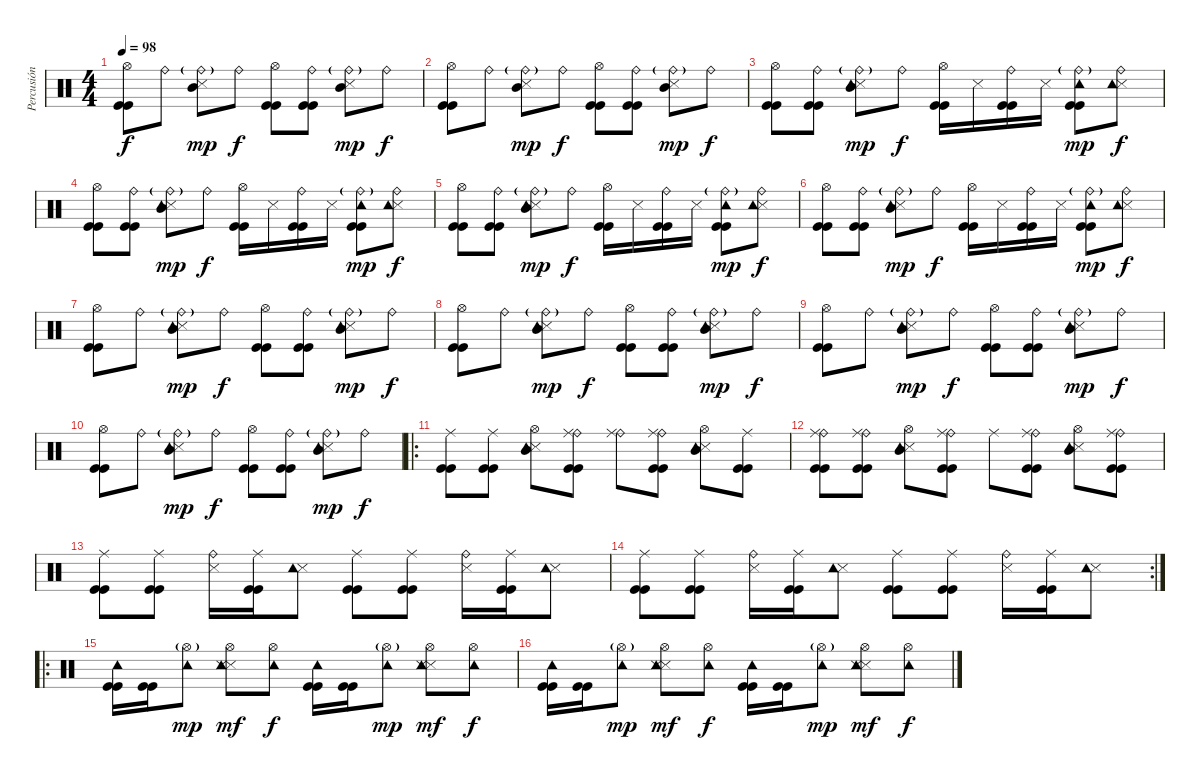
\track ("Percusión" "Percusión") {instrument percussion}
\staff {score}
\articulation defaults
\ts (4 4)
\tempo 98
\clef neutral
\ks c
("Kick (hit)" "Kick (hit)" "Hi-Hat (open)").8{dy f} "Ride (bell)".8 ("Snare (side stick) 3" "Mid Tom (hit)" "Ride (bell)"{g}).8{dy mp} "Ride (bell)".8{dy f} ("Kick (hit)" "Kick (hit)" "Hi-Hat (open)").8 ("Kick (hit)" "Kick (hit)" "Ride (bell)").8 ("Snare (side stick) 3" "Mid Tom (hit)" "Ride (bell)"{g}).8{dy mp} "Ride (bell)".8{dy f} |
("Kick (hit)" "Kick (hit)" "Hi-Hat (open)").8 "Ride (bell)".8 ("Snare (side stick) 3" "Mid Tom (hit)" "Ride (bell)"{g}).8{dy mp} "Ride (bell)".8{dy f} ("Kick (hit)" "Kick (hit)" "Hi-Hat (open)").8 ("Kick (hit)" "Kick (hit)" "Ride (bell)").8 ("Snare (side stick) 3" "Mid Tom (hit)" "Ride (bell)"{g}).8{dy mp} "Ride (bell)".8{dy f} |
("Kick (hit)" "Kick (hit)" "Hi-Hat (open)").8 ("Kick (hit)" "Kick (hit)" "Ride (bell)").8 ("Snare (side stick) 3" "Mid Tom (hit)" "Ride (bell)"{g} "Tambourine (hit)").8{dy mp} "Ride (bell)".8{dy f} ("Kick (hit)" "Kick (hit)" "Hi-Hat (open)").16 "Snare (side stick) 3".16 ("Kick (hit)" "Kick (hit)" "Ride (bell)").16 "Snare (side stick) 3".16 ("Kick (hit)" "Kick (hit)" "Ride (bell)"{g} "Tambourine (hit)").8{dy mp} ("Snare (side stick) 3" "Ride (bell)" "Tambourine (hit)").8{dy f} |
("Kick (hit)" "Kick (hit)" "Hi-Hat (open)").8 ("Kick (hit)" "Kick (hit)" "Ride (bell)").8 ("Snare (side stick) 3" "Mid Tom (hit)" "Ride (bell)"{g} "Tambourine (hit)").8{dy mp} "Ride (bell)".8{dy f} ("Kick (hit)" "Kick (hit)" "Hi-Hat (open)").16 "Snare (side stick) 3".16 ("Kick (hit)" "Kick (hit)" "Ride (bell)").16 "Snare (side stick) 3".16 ("Kick (hit)" "Kick (hit)" "Ride (bell)"{g} "Tambourine (hit)").8{dy mp} ("Snare (side stick) 3" "Ride (bell)" "Tambourine (hit)").8{dy f} |
("Kick (hit)" "Kick (hit)" "Hi-Hat (open)").8 ("Kick (hit)" "Kick (hit)" "Ride (bell)").8 ("Snare (side stick) 3" "Mid Tom (hit)" "Ride (bell)"{g} "Tambourine (hit)").8{dy mp} "Ride (bell)".8{dy f} ("Kick (hit)" "Kick (hit)" "Hi-Hat (open)").16 "Snare (side stick) 3".16 ("Kick (hit)" "Kick (hit)" "Ride (bell)").16 "Snare (side stick) 3".16 ("Kick (hit)" "Kick (hit)" "Ride (bell)"{g} "Tambourine (hit)").8{dy mp} ("Snare (side stick) 3" "Ride (bell)" "Tambourine (hit)").8{dy f} |
("Kick (hit)" "Kick (hit)" "Hi-Hat (open)").8 ("Kick (hit)" "Kick (hit)" "Ride (bell)").8 ("Snare (side stick) 3" "Mid Tom (hit)" "Ride (bell)"{g} "Tambourine (hit)").8{dy mp} "Ride (bell)".8{dy f} ("Kick (hit)" "Kick (hit)" "Hi-Hat (open)").16 "Snare (side stick) 3".16 ("Kick (hit)" "Kick (hit)" "Ride (bell)").16 "Snare (side stick) 3".16 ("Kick (hit)" "Kick (hit)" "Ride (bell)"{g} "Tambourine (hit)").8{dy mp} ("Snare (side stick) 3" "Ride (bell)" "Tambourine (hit)").8{dy f} |
("Kick (hit)" "Kick (hit)" "Hi-Hat (open)").8 "Ride (bell)".8 ("Snare (side stick) 3" "Mid Tom (hit)" "Ride (bell)"{g} "Tambourine (hit)").8{dy mp} "Ride (bell)".8{dy f} ("Kick (hit)" "Kick (hit)" "Hi-Hat (open)").8 ("Kick (hit)" "Kick (hit)" "Ride (bell)").8 ("Snare (side stick) 3" "Mid Tom (hit)" "Ride (bell)"{g} "Tambourine (hit)").8{dy mp} "Ride (bell)".8{dy f} |
("Kick (hit)" "Kick (hit)" "Hi-Hat (open)").8 "Ride (bell)".8 ("Snare (side stick) 3" "Mid Tom (hit)" "Ride (bell)"{g} "Tambourine (hit)").8{dy mp} "Ride (bell)".8{dy f} ("Kick (hit)" "Kick (hit)" "Hi-Hat (open)").8 ("Kick (hit)" "Kick (hit)" "Ride (bell)").8 ("Snare (side stick) 3" "Mid Tom (hit)" "Ride (bell)"{g} "Tambourine (hit)").8{dy mp} "Ride (bell)".8{dy f} |
("Kick (hit)" "Kick (hit)" "Hi-Hat (open)").8 "Ride (bell)".8 ("Snare (side stick) 3" "Mid Tom (hit)" "Ride (bell)"{g} "Tambourine (hit)").8{dy mp} "Ride (bell)".8{dy f} ("Kick (hit)" "Kick (hit)" "Hi-Hat (open)").8 ("Kick (hit)" "Kick (hit)" "Ride (bell)").8 ("Snare (side stick) 3" "Mid Tom (hit)" "Ride (bell)"{g} "Tambourine (hit)").8{dy mp} "Ride (bell)".8{dy f} |
("Kick (hit)" "Kick (hit)" "Hi-Hat (open)").8 "Ride (bell)".8 ("Snare (side stick) 3" "Mid Tom (hit)" "Ride (bell)"{g} "Tambourine (hit)").8{dy mp} "Ride (bell)".8{dy f} ("Kick (hit)" "Kick (hit)" "Hi-Hat (open)").8 ("Kick (hit)" "Kick (hit)" "Ride (bell)").8 ("Snare (side stick) 3" "Mid Tom (hit)" "Ride (bell)"{g} "Tambourine (hit)").8{dy mp} "Ride (bell)".8{dy f} |
\ro
("Kick (hit)" "Kick (hit)" "Ride (middle)").8 ("Kick (hit)" "Kick (hit)" "Ride (middle)").8 ("Snare (side stick) 3" "Mid Tom (hit)" "Hi-Hat (open)" "Tambourine (hit)").8 ("Kick (hit)" "Kick (hit)" "Ride (bell)" "Ride (middle)").8 ("Ride (bell)" "Ride (middle)").8 ("Kick (hit)" "Kick (hit)" "Ride (bell)" "Ride (middle)").8 ("Snare (side stick) 3" "Mid Tom (hit)" "Hi-Hat (open)" "Tambourine (hit)").8 ("Kick (hit)" "Kick (hit)" "Ride (middle)").8 |
("Kick (hit)" "Kick (hit)" "Ride (bell)" "Ride (middle)").8 ("Kick (hit)" "Kick (hit)" "Ride (bell)" "Ride (middle)").8 ("Snare (side stick) 3" "Mid Tom (hit)" "Hi-Hat (open)" "Tambourine (hit)").8 ("Kick (hit)" "Kick (hit)" "Ride (bell)" "Ride (middle)").8 "Ride (middle)".8 ("Kick (hit)" "Kick (hit)" "Ride (bell)" "Ride (middle)").8 ("Snare (side stick) 3" "Mid Tom (hit)" "Hi-Hat (open)" "Tambourine (hit)").8 ("Kick (hit)" "Kick (hit)" "Ride (bell)" "Ride (middle)").8 |
("Kick (hit)" "Kick (hit)" "Ride (middle)").8 ("Kick (hit)" "Kick (hit)" "Ride (middle)").8 ("Snare (side stick) 3" "Ride (bell)").16 ("Kick (hit)" "Kick (hit)" "Ride (middle)").16 ("Snare (side stick) 3" "Tambourine (hit)").8 ("Kick (hit)" "Kick (hit)" "Ride (middle)").8 ("Kick (hit)" "Kick (hit)" "Ride (middle)").8 ("Snare (side stick) 3" "Ride (bell)").16 ("Kick (hit)" "Kick (hit)" "Ride (middle)").16 ("Snare (side stick) 3" "Tambourine (hit)").8 |
\rc 2
("Kick (hit)" "Kick (hit)" "Ride (middle)").8 ("Kick (hit)" "Kick (hit)" "Ride (middle)").8 ("Snare (side stick) 3" "Ride (bell)").16 ("Kick (hit)" "Kick (hit)" "Ride (middle)").16 ("Snare (side stick) 3" "Tambourine (hit)").8 ("Kick (hit)" "Kick (hit)" "Ride (middle)").8 ("Kick (hit)" "Kick (hit)" "Ride (middle)").8 ("Snare (side stick) 3" "Ride (bell)").16 ("Kick (hit)" "Kick (hit)" "Ride (middle)").16 ("Snare (side stick) 3" "Tambourine (hit)").8 |
\ro
("Kick (hit)" "Kick (hit)" "Tambourine (hit)").16 ("Kick (hit)" "Kick (hit)").16 ("Tambourine (hit)" "Hi-Hat (open)"{g}).8{dy mp} ("Snare (side stick) 3" "Snare (side stick) 3" "Tambourine (hit)" "Hi-Hat (open)").8{dy mf} ("Tambourine (hit)" "Hi-Hat (open)").8{dy f} ("Kick (hit)" "Kick (hit)" "Tambourine (hit)").16 ("Kick (hit)" "Kick (hit)").16 ("Tambourine (hit)" "Hi-Hat (open)"{g}).8{dy mp} ("Snare (side stick) 3" "Snare (side stick) 3" "Tambourine (hit)" "Hi-Hat (open)").8{dy mf} ("Tambourine (hit)" "Hi-Hat (open)").8{dy f} |
("Kick (hit)" "Kick (hit)" "Tambourine (hit)").16 ("Kick (hit)" "Kick (hit)").16 ("Tambourine (hit)" "Hi-Hat (open)"{g}).8{dy mp} ("Snare (side stick) 3" "Snare (side stick) 3" "Tambourine (hit)" "Hi-Hat (open)").8{dy mf} ("Tambourine (hit)" "Hi-Hat (open)").8{dy f} ("Kick (hit)" "Kick (hit)" "Tambourine (hit)").16 ("Kick (hit)" "Kick (hit)").16 ("Tambourine (hit)" "Hi-Hat (open)"{g}).8{dy mp} ("Snare (side stick) 3" "Snare (side stick) 3" "Tambourine (hit)" "Hi-Hat (open)").8{dy mf} ("Tambourine (hit)" "Hi-Hat (open)").8{dy f}
